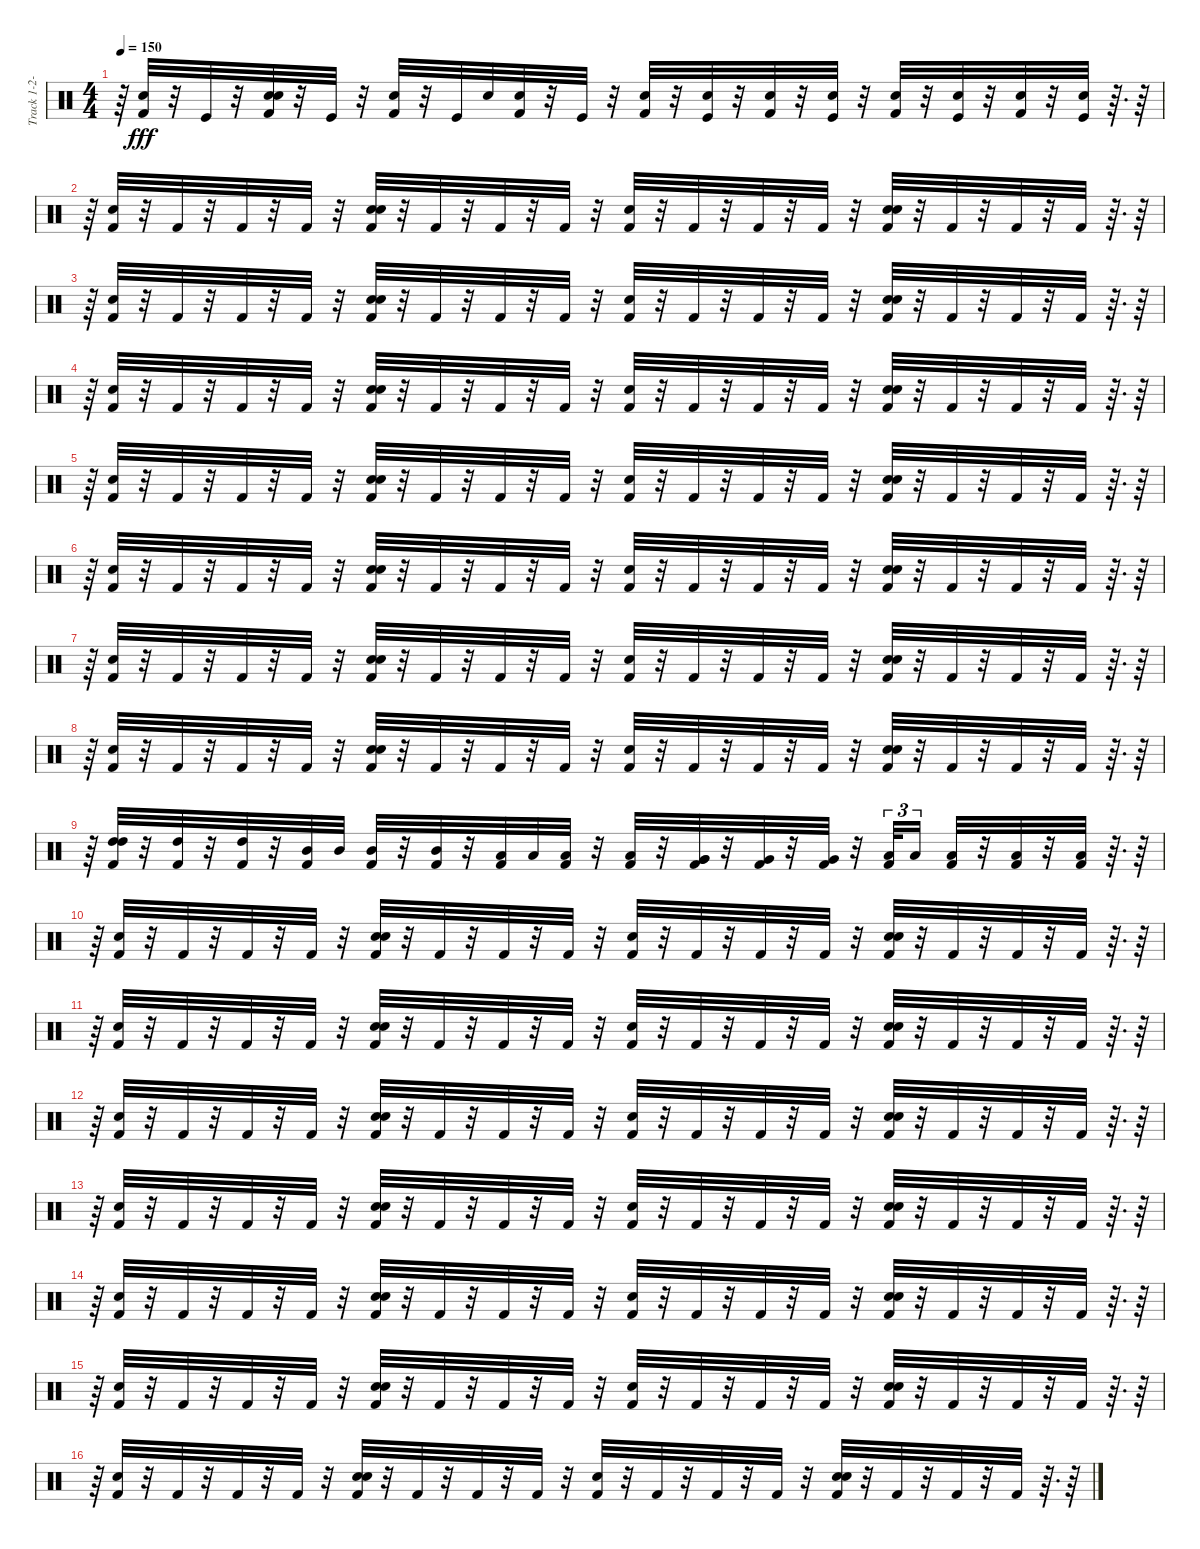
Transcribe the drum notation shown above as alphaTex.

\track ("Track 1-2-3-4-5-6-7-8-9-10-11-12-13-14-1" "Track 1-2-") {instrument percussion}
\staff {score}
\articulation defaults
\ts (4 4)
\tempo 150
\clef neutral
\ks c
r.64{dy fff} ("Kick (hit) 2" "Snare (hit)").32 r.32 "Kick (hit)".32 r.32 ("Snare (hit)" "Snare (hit) 2" "Kick (hit) 2").32 r.32 "Kick (hit)".32 r.32 ("Kick (hit) 2" "Snare (hit)").32 r.32 "Kick (hit)".32 "Snare (hit) 2".32 ("Snare (hit)" "Kick (hit) 2").32 r.32 "Kick (hit)".32 r.32 ("Snare (hit)" "Kick (hit) 2").32 r.32 ("Kick (hit)" "Snare (hit) 2").32 r.32 ("Snare (hit) 2" "Kick (hit) 2").32 r.32 ("Kick (hit)" "Snare (hit) 2").32 r.32 ("Snare (hit) 2" "Kick (hit) 2").32 r.32 ("Kick (hit)" "Snare (hit) 2").32 r.32 ("Kick (hit) 2" "Snare (hit) 2").32 r.32 ("Snare (hit) 2" "Kick (hit)").32 r.64{d} r.64 |
r.64 ("Kick (hit) 2" "Snare (hit)").32 r.32 "Kick (hit) 2".32 r.32 "Kick (hit) 2".32 r.32 "Kick (hit) 2".32 r.32 ("Snare (hit)" "Kick (hit) 2" "Snare (hit) 2").32 r.32 "Kick (hit) 2".32 r.32 "Kick (hit) 2".32 r.32 "Kick (hit) 2".32 r.32 ("Kick (hit) 2" "Snare (hit)").32 r.32 "Kick (hit) 2".32 r.32 "Kick (hit) 2".32 r.32 "Kick (hit) 2".32 r.32 ("Snare (hit)" "Kick (hit) 2" "Snare (hit) 2").32 r.32 "Kick (hit) 2".32 r.32 "Kick (hit) 2".32 r.32 "Kick (hit) 2".32 r.64{d} r.64 |
r.64 ("Kick (hit) 2" "Snare (hit)").32 r.32 "Kick (hit) 2".32 r.32 "Kick (hit) 2".32 r.32 "Kick (hit) 2".32 r.32 ("Snare (hit)" "Kick (hit) 2" "Snare (hit) 2").32 r.32 "Kick (hit) 2".32 r.32 "Kick (hit) 2".32 r.32 "Kick (hit) 2".32 r.32 ("Kick (hit) 2" "Snare (hit)").32 r.32 "Kick (hit) 2".32 r.32 "Kick (hit) 2".32 r.32 "Kick (hit) 2".32 r.32 ("Snare (hit) 2" "Snare (hit)" "Kick (hit) 2").32 r.32 "Kick (hit) 2".32 r.32 "Kick (hit) 2".32 r.32 "Kick (hit) 2".32 r.64{d} r.64 |
r.64 ("Kick (hit) 2" "Snare (hit)").32 r.32 "Kick (hit) 2".32 r.32 "Kick (hit) 2".32 r.32 "Kick (hit) 2".32 r.32 ("Snare (hit)" "Snare (hit) 2" "Kick (hit) 2").32 r.32 "Kick (hit) 2".32 r.32 "Kick (hit) 2".32 r.32 "Kick (hit) 2".32 r.32 ("Kick (hit) 2" "Snare (hit)").32 r.32 "Kick (hit) 2".32 r.32 "Kick (hit) 2".32 r.32 "Kick (hit) 2".32 r.32 ("Snare (hit) 2" "Snare (hit)" "Kick (hit) 2").32 r.32 "Kick (hit) 2".32 r.32 "Kick (hit) 2".32 r.32 "Kick (hit) 2".32 r.64{d} r.64 |
r.64 ("Kick (hit) 2" "Snare (hit)").32 r.32 "Kick (hit) 2".32 r.32 "Kick (hit) 2".32 r.32 "Kick (hit) 2".32 r.32 ("Snare (hit)" "Kick (hit) 2" "Snare (hit) 2").32 r.32 "Kick (hit) 2".32 r.32 "Kick (hit) 2".32 r.32 "Kick (hit) 2".32 r.32 ("Kick (hit) 2" "Snare (hit)").32 r.32 "Kick (hit) 2".32 r.32 "Kick (hit) 2".32 r.32 "Kick (hit) 2".32 r.32 ("Snare (hit)" "Snare (hit) 2" "Kick (hit) 2").32 r.32 "Kick (hit) 2".32 r.32 "Kick (hit) 2".32 r.32 "Kick (hit) 2".32 r.64{d} r.64 |
r.64 ("Kick (hit) 2" "Snare (hit)").32 r.32 "Kick (hit) 2".32 r.32 "Kick (hit) 2".32 r.32 "Kick (hit) 2".32 r.32 ("Snare (hit)" "Kick (hit) 2" "Snare (hit) 2").32 r.32 "Kick (hit) 2".32 r.32 "Kick (hit) 2".32 r.32 "Kick (hit) 2".32 r.32 ("Kick (hit) 2" "Snare (hit)").32 r.32 "Kick (hit) 2".32 r.32 "Kick (hit) 2".32 r.32 "Kick (hit) 2".32 r.32 ("Snare (hit)" "Kick (hit) 2" "Snare (hit) 2").32 r.32 "Kick (hit) 2".32 r.32 "Kick (hit) 2".32 r.32 "Kick (hit) 2".32 r.64{d} r.64 |
r.64 ("Kick (hit) 2" "Snare (hit)").32 r.32 "Kick (hit) 2".32 r.32 "Kick (hit) 2".32 r.32 "Kick (hit) 2".32 r.32 ("Snare (hit)" "Kick (hit) 2" "Snare (hit) 2").32 r.32 "Kick (hit) 2".32 r.32 "Kick (hit) 2".32 r.32 "Kick (hit) 2".32 r.32 ("Kick (hit) 2" "Snare (hit)").32 r.32 "Kick (hit) 2".32 r.32 "Kick (hit) 2".32 r.32 "Kick (hit) 2".32 r.32 ("Snare (hit) 2" "Snare (hit)" "Kick (hit) 2").32 r.32 "Kick (hit) 2".32 r.32 "Kick (hit) 2".32 r.32 "Kick (hit) 2".32 r.64{d} r.64 |
r.64 ("Kick (hit) 2" "Snare (hit)").32 r.32 "Kick (hit) 2".32 r.32 "Kick (hit) 2".32 r.32 "Kick (hit) 2".32 r.32 ("Snare (hit)" "Snare (hit) 2" "Kick (hit) 2").32 r.32 "Kick (hit) 2".32 r.32 "Kick (hit) 2".32 r.32 "Kick (hit) 2".32 r.32 ("Kick (hit) 2" "Snare (hit)").32 r.32 "Kick (hit) 2".32 r.32 "Kick (hit) 2".32 r.32 "Kick (hit) 2".32 r.32 ("Snare (hit) 2" "Snare (hit)" "Kick (hit) 2").32 r.32 "Kick (hit) 2".32 r.32 "Kick (hit) 2".32 r.32 "Kick (hit) 2".32 r.64{d} r.64 |
r.64 ("Kick (hit) 2" "High Tom (hit)" "High Tom (hit)").32 r.32 ("High Tom (hit)" "Kick (hit) 2").32 r.32 ("High Tom (hit)" "Kick (hit) 2").32 r.32 ("Mid Tom (hit)" "Kick (hit) 2").32 "Mid Tom (hit)".32 ("Kick (hit) 2" "Mid Tom (hit)").32 r.32 ("Kick (hit) 2" "Mid Tom (hit)").32 r.32 ("Low Tom (hit)" "Kick (hit) 2").32 "Low Tom (hit)".32 ("Kick (hit) 2" "Low Tom (hit)").32 r.32 ("Kick (hit) 2" "Low Tom (hit)").32 r.32 ("Very Low Tom (hit)" "Kick (hit) 2" "Very Low Tom (hit)").32 r.32 ("Kick (hit) 2" "Very Low Tom (hit)").32 r.32 ("Kick (hit) 2" "Very Low Tom (hit)").32 r.32 ("Kick (hit) 2" "Low Floor Tom (hit)").32{tu (3 2)} "Low Floor Tom (hit)".16{tu (3 2) beam splitsecondary} ("Kick (hit) 2" "Low Floor Tom (hit)").32 r.32 ("Kick (hit) 2" "Low Floor Tom (hit)").32 r.32 ("Low Floor Tom (hit)" "Kick (hit) 2").32 r.64{d} r.64 |
r.64 ("Kick (hit) 2" "Snare (hit)").32 r.32 "Kick (hit) 2".32 r.32 "Kick (hit) 2".32 r.32 "Kick (hit) 2".32 r.32 ("Snare (hit)" "Kick (hit) 2" "Snare (hit) 2").32 r.32 "Kick (hit) 2".32 r.32 "Kick (hit) 2".32 r.32 "Kick (hit) 2".32 r.32 ("Kick (hit) 2" "Snare (hit)").32 r.32 "Kick (hit) 2".32 r.32 "Kick (hit) 2".32 r.32 "Kick (hit) 2".32 r.32 ("Snare (hit)" "Kick (hit) 2" "Snare (hit) 2").32 r.32 "Kick (hit) 2".32 r.32 "Kick (hit) 2".32 r.32 "Kick (hit) 2".32 r.64{d} r.64 |
r.64 ("Kick (hit) 2" "Snare (hit)").32 r.32 "Kick (hit) 2".32 r.32 "Kick (hit) 2".32 r.32 "Kick (hit) 2".32 r.32 ("Snare (hit)" "Kick (hit) 2" "Snare (hit) 2").32 r.32 "Kick (hit) 2".32 r.32 "Kick (hit) 2".32 r.32 "Kick (hit) 2".32 r.32 ("Kick (hit) 2" "Snare (hit)").32 r.32 "Kick (hit) 2".32 r.32 "Kick (hit) 2".32 r.32 "Kick (hit) 2".32 r.32 ("Snare (hit) 2" "Snare (hit)" "Kick (hit) 2").32 r.32 "Kick (hit) 2".32 r.32 "Kick (hit) 2".32 r.32 "Kick (hit) 2".32 r.64{d} r.64 |
r.64 ("Kick (hit) 2" "Snare (hit)").32 r.32 "Kick (hit) 2".32 r.32 "Kick (hit) 2".32 r.32 "Kick (hit) 2".32 r.32 ("Snare (hit)" "Snare (hit) 2" "Kick (hit) 2").32 r.32 "Kick (hit) 2".32 r.32 "Kick (hit) 2".32 r.32 "Kick (hit) 2".32 r.32 ("Kick (hit) 2" "Snare (hit)").32 r.32 "Kick (hit) 2".32 r.32 "Kick (hit) 2".32 r.32 "Kick (hit) 2".32 r.32 ("Snare (hit) 2" "Snare (hit)" "Kick (hit) 2").32 r.32 "Kick (hit) 2".32 r.32 "Kick (hit) 2".32 r.32 "Kick (hit) 2".32 r.64{d} r.64 |
r.64 ("Kick (hit) 2" "Snare (hit)").32 r.32 "Kick (hit) 2".32 r.32 "Kick (hit) 2".32 r.32 "Kick (hit) 2".32 r.32 ("Snare (hit)" "Kick (hit) 2" "Snare (hit) 2").32 r.32 "Kick (hit) 2".32 r.32 "Kick (hit) 2".32 r.32 "Kick (hit) 2".32 r.32 ("Kick (hit) 2" "Snare (hit)").32 r.32 "Kick (hit) 2".32 r.32 "Kick (hit) 2".32 r.32 "Kick (hit) 2".32 r.32 ("Snare (hit)" "Snare (hit) 2" "Kick (hit) 2").32 r.32 "Kick (hit) 2".32 r.32 "Kick (hit) 2".32 r.32 "Kick (hit) 2".32 r.64{d} r.64 |
r.64 ("Kick (hit) 2" "Snare (hit)").32 r.32 "Kick (hit) 2".32 r.32 "Kick (hit) 2".32 r.32 "Kick (hit) 2".32 r.32 ("Snare (hit)" "Kick (hit) 2" "Snare (hit) 2").32 r.32 "Kick (hit) 2".32 r.32 "Kick (hit) 2".32 r.32 "Kick (hit) 2".32 r.32 ("Kick (hit) 2" "Snare (hit)").32 r.32 "Kick (hit) 2".32 r.32 "Kick (hit) 2".32 r.32 "Kick (hit) 2".32 r.32 ("Snare (hit)" "Kick (hit) 2" "Snare (hit) 2").32 r.32 "Kick (hit) 2".32 r.32 "Kick (hit) 2".32 r.32 "Kick (hit) 2".32 r.64{d} r.64 |
r.64 ("Kick (hit) 2" "Snare (hit)").32 r.32 "Kick (hit) 2".32 r.32 "Kick (hit) 2".32 r.32 "Kick (hit) 2".32 r.32 ("Snare (hit)" "Kick (hit) 2" "Snare (hit) 2").32 r.32 "Kick (hit) 2".32 r.32 "Kick (hit) 2".32 r.32 "Kick (hit) 2".32 r.32 ("Kick (hit) 2" "Snare (hit)").32 r.32 "Kick (hit) 2".32 r.32 "Kick (hit) 2".32 r.32 "Kick (hit) 2".32 r.32 ("Snare (hit) 2" "Snare (hit)" "Kick (hit) 2").32 r.32 "Kick (hit) 2".32 r.32 "Kick (hit) 2".32 r.32 "Kick (hit) 2".32 r.64{d} r.64 |
r.64 ("Kick (hit) 2" "Snare (hit)").32 r.32 "Kick (hit) 2".32 r.32 "Kick (hit) 2".32 r.32 "Kick (hit) 2".32 r.32 ("Snare (hit)" "Snare (hit) 2" "Kick (hit) 2").32 r.32 "Kick (hit) 2".32 r.32 "Kick (hit) 2".32 r.32 "Kick (hit) 2".32 r.32 ("Kick (hit) 2" "Snare (hit)").32 r.32 "Kick (hit) 2".32 r.32 "Kick (hit) 2".32 r.32 "Kick (hit) 2".32 r.32 ("Snare (hit) 2" "Snare (hit)" "Kick (hit) 2").32 r.32 "Kick (hit) 2".32 r.32 "Kick (hit) 2".32 r.32 "Kick (hit) 2".32 r.64{d} r.64
